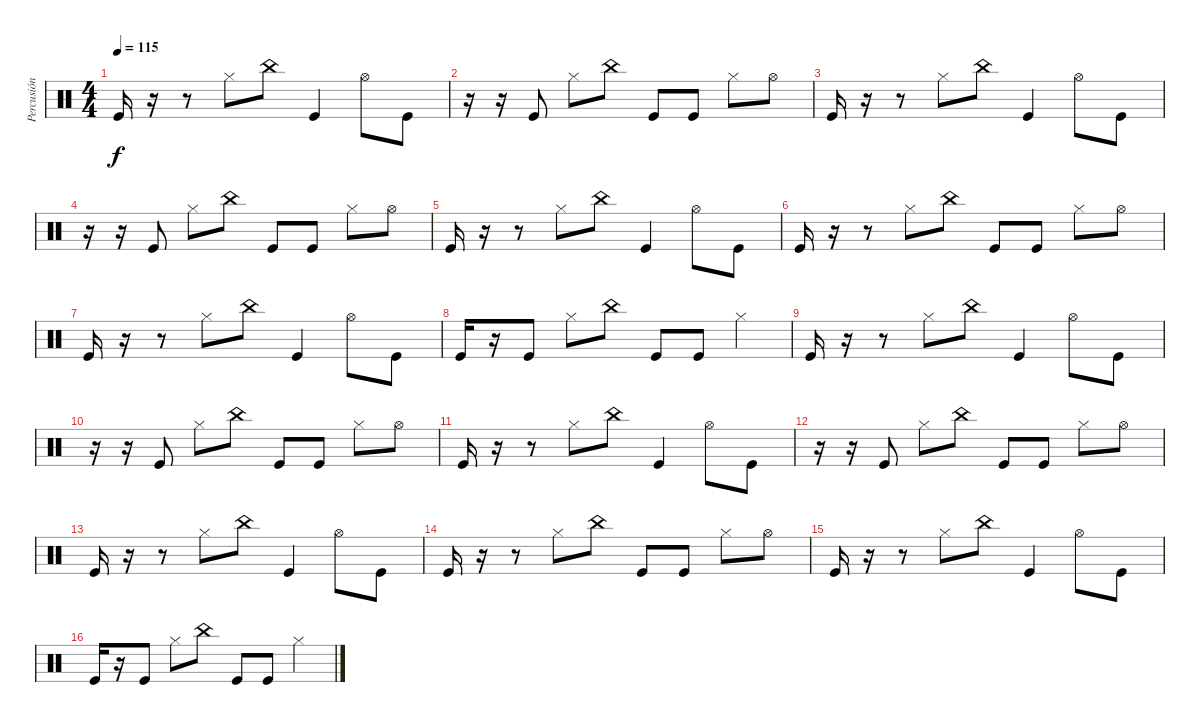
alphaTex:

\track ("Percusión" "Percusión") {instrument percussion}
\staff {score}
\articulation defaults
\ts (4 4)
\tempo 115
\clef neutral
\ks c "Kick (hit)".16{dy f}
r.16 r.8 "Hi-Hat (closed)".8 "China (hit)".8 "Kick (hit)".4 "Hi-Hat (open)".8 "Kick (hit)".8 |
r.16 r.16 "Kick (hit)".8 "Hi-Hat (closed)".8 "China (hit)".8 "Kick (hit)".8 "Kick (hit)".8 "Hi-Hat (closed)".8 "Hi-Hat (open)".8 |
"Kick (hit)".16 r.16 r.8 "Hi-Hat (closed)".8 "China (hit)".8 "Kick (hit)".4 "Hi-Hat (open)".8 "Kick (hit)".8 |
r.16 r.16 "Kick (hit)".8 "Hi-Hat (closed)".8 "China (hit)".8 "Kick (hit)".8 "Kick (hit)".8 "Hi-Hat (closed)".8 "Hi-Hat (open)".8 |
"Kick (hit)".16 r.16 r.8 "Hi-Hat (closed)".8 "China (hit)".8 "Kick (hit)".4 "Hi-Hat (open)".8 "Kick (hit)".8 |
"Kick (hit)".16 r.16 r.8 "Hi-Hat (closed)".8 "China (hit)".8 "Kick (hit)".8 "Kick (hit)".8 "Hi-Hat (closed)".8 "Hi-Hat (open)".8 |
"Kick (hit)".16 r.16 r.8 "Hi-Hat (closed)".8 "China (hit)".8 "Kick (hit)".4 "Hi-Hat (open)".8 "Kick (hit)".8 |
"Kick (hit)".16 r.16 "Kick (hit)".8 "Hi-Hat (closed)".8 "China (hit)".8 "Kick (hit)".8 "Kick (hit)".8 "Hi-Hat (closed)".4 |
"Kick (hit)".16 r.16 r.8 "Hi-Hat (closed)".8 "China (hit)".8 "Kick (hit)".4 "Hi-Hat (open)".8 "Kick (hit)".8 |
r.16 r.16 "Kick (hit)".8 "Hi-Hat (closed)".8 "China (hit)".8 "Kick (hit)".8 "Kick (hit)".8 "Hi-Hat (closed)".8 "Hi-Hat (open)".8 |
"Kick (hit)".16 r.16 r.8 "Hi-Hat (closed)".8 "China (hit)".8 "Kick (hit)".4 "Hi-Hat (open)".8 "Kick (hit)".8 |
r.16 r.16 "Kick (hit)".8 "Hi-Hat (closed)".8 "China (hit)".8 "Kick (hit)".8 "Kick (hit)".8 "Hi-Hat (closed)".8 "Hi-Hat (open)".8 |
"Kick (hit)".16 r.16 r.8 "Hi-Hat (closed)".8 "China (hit)".8 "Kick (hit)".4 "Hi-Hat (open)".8 "Kick (hit)".8 |
"Kick (hit)".16 r.16 r.8 "Hi-Hat (closed)".8 "China (hit)".8 "Kick (hit)".8 "Kick (hit)".8 "Hi-Hat (closed)".8 "Hi-Hat (open)".8 |
"Kick (hit)".16 r.16 r.8 "Hi-Hat (closed)".8 "China (hit)".8 "Kick (hit)".4 "Hi-Hat (open)".8 "Kick (hit)".8 |
"Kick (hit)".16 r.16 "Kick (hit)".8 "Hi-Hat (closed)".8 "China (hit)".8 "Kick (hit)".8 "Kick (hit)".8 "Hi-Hat (closed)".4
